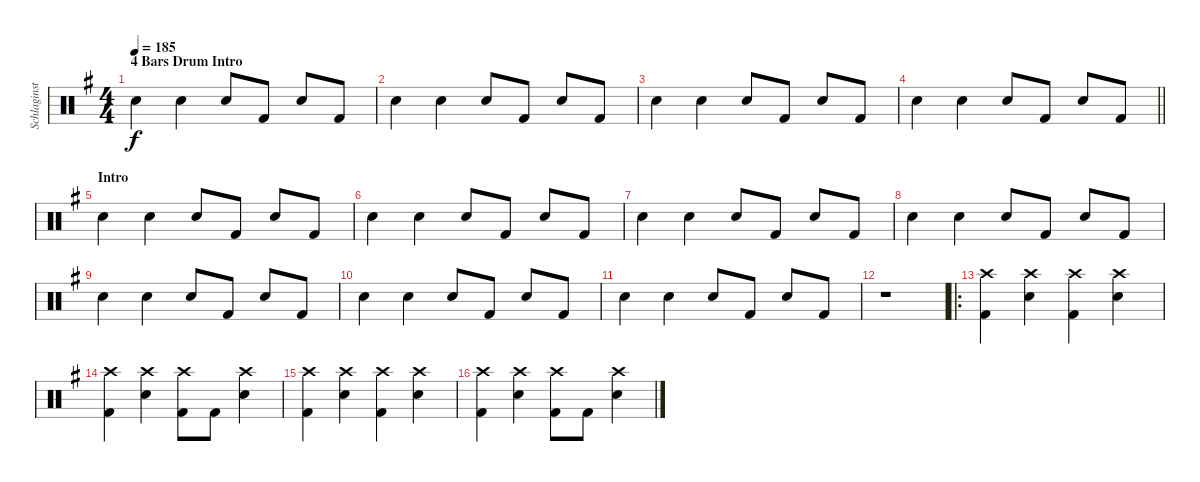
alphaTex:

\track ("Schlaginstrumente - Auswahl" "Schlaginst") {instrument percussion}
\staff {score}
\articulation defaults
\ts (4 4)
\section ("" "4 Bars Drum Intro")
\tempo 185
\clef neutral
\ks eminor "Snare (hit) 2".4{dy f} "Snare (hit) 2".4 "Snare (hit) 2".8 "Kick (hit) 2".8 "Snare (hit) 2".8 "Kick (hit) 2".8
|
"Snare (hit) 2".4 "Snare (hit) 2".4 "Snare (hit) 2".8 "Kick (hit) 2".8 "Snare (hit) 2".8 "Kick (hit) 2".8 |
"Snare (hit) 2".4 "Snare (hit) 2".4 "Snare (hit) 2".8 "Kick (hit) 2".8 "Snare (hit) 2".8 "Kick (hit) 2".8 |
\barLineRight lightlight "Snare (hit) 2".4 "Snare (hit) 2".4 "Snare (hit) 2".8 "Kick (hit) 2".8 "Snare (hit) 2".8 "Kick (hit) 2".8
|
\section ("" "Intro")
"Snare (hit) 2".4 "Snare (hit) 2".4 "Snare (hit) 2".8 "Kick (hit) 2".8 "Snare (hit) 2".8 "Kick (hit) 2".8 |
"Snare (hit) 2".4 "Snare (hit) 2".4 "Snare (hit) 2".8 "Kick (hit) 2".8 "Snare (hit) 2".8 "Kick (hit) 2".8 |
"Snare (hit) 2".4 "Snare (hit) 2".4 "Snare (hit) 2".8 "Kick (hit) 2".8 "Snare (hit) 2".8 "Kick (hit) 2".8 |
"Snare (hit) 2".4 "Snare (hit) 2".4 "Snare (hit) 2".8 "Kick (hit) 2".8 "Snare (hit) 2".8 "Kick (hit) 2".8 |
"Snare (hit) 2".4 "Snare (hit) 2".4 "Snare (hit) 2".8 "Kick (hit) 2".8 "Snare (hit) 2".8 "Kick (hit) 2".8 |
"Snare (hit) 2".4 "Snare (hit) 2".4 "Snare (hit) 2".8 "Kick (hit) 2".8 "Snare (hit) 2".8 "Kick (hit) 2".8 |
"Snare (hit) 2".4 "Snare (hit) 2".4 "Snare (hit) 2".8 "Kick (hit) 2".8 "Snare (hit) 2".8 "Kick (hit) 2".8 |
r.1 |
\ro
("Kick (hit) 2" "Crash high (hit)").4 ("Snare (hit) 2" "Crash high (hit)").4 ("Kick (hit) 2" "Crash high (hit)").4 ("Snare (hit) 2" "Crash high (hit)").4 |
("Kick (hit) 2" "Crash high (hit)").4 ("Snare (hit) 2" "Crash high (hit)").4 ("Kick (hit) 2" "Crash high (hit)").8 "Kick (hit) 2".8 ("Snare (hit) 2" "Crash high (hit)").4 |
("Kick (hit) 2" "Crash high (hit)").4 ("Snare (hit) 2" "Crash high (hit)").4 ("Kick (hit) 2" "Crash high (hit)").4 ("Snare (hit) 2" "Crash high (hit)").4 |
("Kick (hit) 2" "Crash high (hit)").4 ("Snare (hit) 2" "Crash high (hit)").4 ("Kick (hit) 2" "Crash high (hit)").8 "Kick (hit) 2".8 ("Snare (hit) 2" "Crash high (hit)").4
